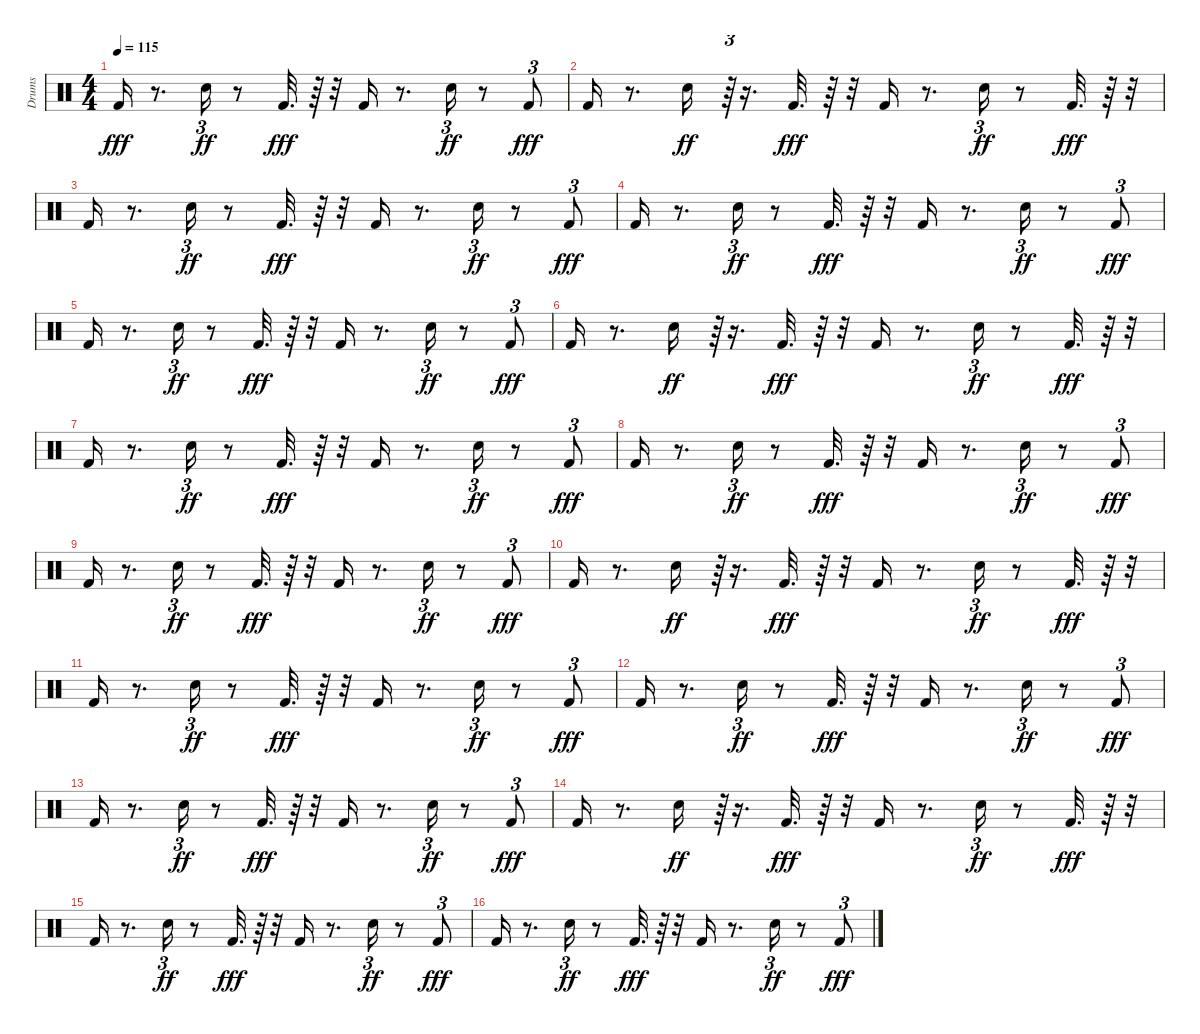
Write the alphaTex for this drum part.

\track ("Drums" "Drums") {instrument percussion}
\staff {score}
\articulation defaults
\ts (4 4)
\tempo 115
\clef neutral
\ks c "Kick (hit) 2".16{dy fff}
r.8{d} "Electric Snare (hit)".16{tu (3 2) dy ff} r.8 "Kick (hit) 2".32{d dy fff} r.64 r.32 "Kick (hit) 2".16 r.8{d} "Electric Snare (hit)".16{tu (3 2) dy ff} r.8 "Kick (hit) 2".8{tu (3 2) dy fff} |
"Kick (hit) 2".16 r.8{d} "Electric Snare (hit)".16{dy ff} r.64{tu (3 2)} r.16{d} "Kick (hit) 2".32{d dy fff} r.64 r.32 "Kick (hit) 2".16 r.8{d} "Electric Snare (hit)".16{tu (3 2) dy ff} r.8 "Kick (hit) 2".32{d dy fff} r.64 r.32 |
"Kick (hit) 2".16 r.8{d} "Electric Snare (hit)".16{tu (3 2) dy ff} r.8 "Kick (hit) 2".32{d dy fff} r.64 r.32 "Kick (hit) 2".16 r.8{d} "Electric Snare (hit)".16{tu (3 2) dy ff} r.8 "Kick (hit) 2".8{tu (3 2) dy fff} |
"Kick (hit) 2".16 r.8{d} "Electric Snare (hit)".16{tu (3 2) dy ff} r.8 "Kick (hit) 2".32{d dy fff} r.64 r.32 "Kick (hit) 2".16 r.8{d} "Electric Snare (hit)".16{tu (3 2) dy ff} r.8 "Kick (hit) 2".8{tu (3 2) dy fff} |
"Kick (hit) 2".16 r.8{d} "Electric Snare (hit)".16{tu (3 2) dy ff} r.8 "Kick (hit) 2".32{d dy fff} r.64 r.32 "Kick (hit) 2".16 r.8{d} "Electric Snare (hit)".16{tu (3 2) dy ff} r.8 "Kick (hit) 2".8{tu (3 2) dy fff} |
"Kick (hit) 2".16 r.8{d} "Electric Snare (hit)".16{dy ff} r.64{tu (3 2)} r.16{d} "Kick (hit) 2".32{d dy fff} r.64 r.32 "Kick (hit) 2".16 r.8{d} "Electric Snare (hit)".16{tu (3 2) dy ff} r.8 "Kick (hit) 2".32{d dy fff} r.64 r.32 |
"Kick (hit) 2".16 r.8{d} "Electric Snare (hit)".16{tu (3 2) dy ff} r.8 "Kick (hit) 2".32{d dy fff} r.64 r.32 "Kick (hit) 2".16 r.8{d} "Electric Snare (hit)".16{tu (3 2) dy ff} r.8 "Kick (hit) 2".8{tu (3 2) dy fff} |
"Kick (hit) 2".16 r.8{d} "Electric Snare (hit)".16{tu (3 2) dy ff} r.8 "Kick (hit) 2".32{d dy fff} r.64 r.32 "Kick (hit) 2".16 r.8{d} "Electric Snare (hit)".16{tu (3 2) dy ff} r.8 "Kick (hit) 2".8{tu (3 2) dy fff} |
"Kick (hit) 2".16 r.8{d} "Electric Snare (hit)".16{tu (3 2) dy ff} r.8 "Kick (hit) 2".32{d dy fff} r.64 r.32 "Kick (hit) 2".16 r.8{d} "Electric Snare (hit)".16{tu (3 2) dy ff} r.8 "Kick (hit) 2".8{tu (3 2) dy fff} |
"Kick (hit) 2".16 r.8{d} "Electric Snare (hit)".16{dy ff} r.64{tu (3 2)} r.16{d} "Kick (hit) 2".32{d dy fff} r.64 r.32 "Kick (hit) 2".16 r.8{d} "Electric Snare (hit)".16{tu (3 2) dy ff} r.8 "Kick (hit) 2".32{d dy fff} r.64 r.32 |
"Kick (hit) 2".16 r.8{d} "Electric Snare (hit)".16{tu (3 2) dy ff} r.8 "Kick (hit) 2".32{d dy fff} r.64 r.32 "Kick (hit) 2".16 r.8{d} "Electric Snare (hit)".16{tu (3 2) dy ff} r.8 "Kick (hit) 2".8{tu (3 2) dy fff} |
"Kick (hit) 2".16 r.8{d} "Electric Snare (hit)".16{tu (3 2) dy ff} r.8 "Kick (hit) 2".32{d dy fff} r.64 r.32 "Kick (hit) 2".16 r.8{d} "Electric Snare (hit)".16{tu (3 2) dy ff} r.8 "Kick (hit) 2".8{tu (3 2) dy fff} |
"Kick (hit) 2".16 r.8{d} "Electric Snare (hit)".16{tu (3 2) dy ff} r.8 "Kick (hit) 2".32{d dy fff} r.64 r.32 "Kick (hit) 2".16 r.8{d} "Electric Snare (hit)".16{tu (3 2) dy ff} r.8 "Kick (hit) 2".8{tu (3 2) dy fff} |
"Kick (hit) 2".16 r.8{d} "Electric Snare (hit)".16{dy ff} r.64{tu (3 2)} r.16{d} "Kick (hit) 2".32{d dy fff} r.64 r.32 "Kick (hit) 2".16 r.8{d} "Electric Snare (hit)".16{tu (3 2) dy ff} r.8 "Kick (hit) 2".32{d dy fff} r.64 r.32 |
"Kick (hit) 2".16 r.8{d} "Electric Snare (hit)".16{tu (3 2) dy ff} r.8 "Kick (hit) 2".32{d dy fff} r.64 r.32 "Kick (hit) 2".16 r.8{d} "Electric Snare (hit)".16{tu (3 2) dy ff} r.8 "Kick (hit) 2".8{tu (3 2) dy fff} |
"Kick (hit) 2".16 r.8{d} "Electric Snare (hit)".16{tu (3 2) dy ff} r.8 "Kick (hit) 2".32{d dy fff} r.64 r.32 "Kick (hit) 2".16 r.8{d} "Electric Snare (hit)".16{tu (3 2) dy ff} r.8 "Kick (hit) 2".8{tu (3 2) dy fff}
